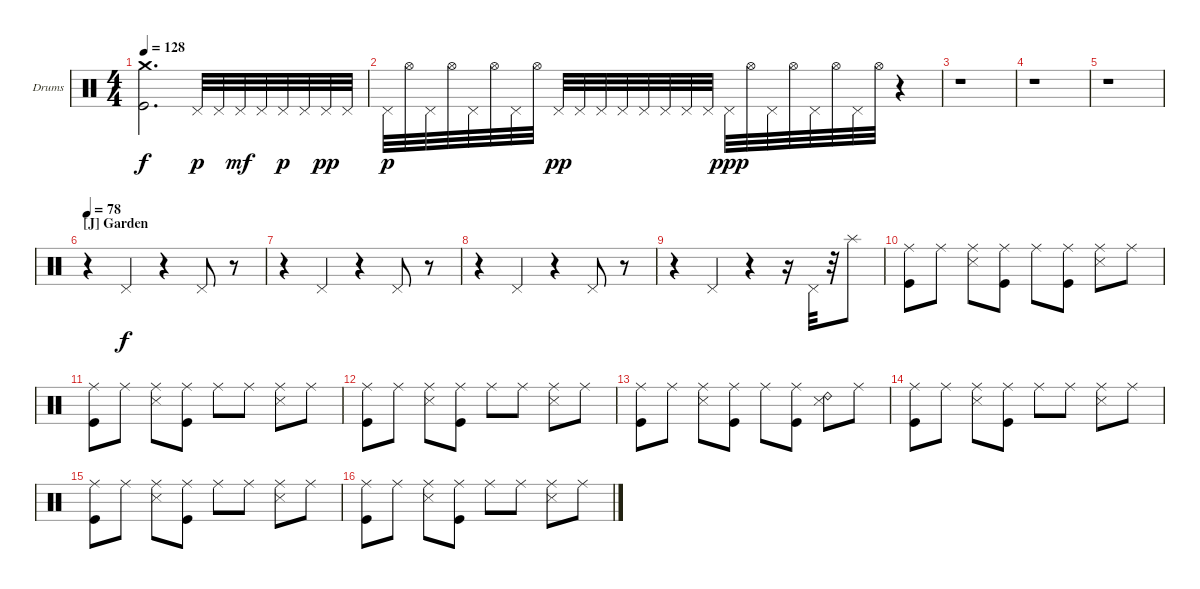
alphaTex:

\defaultSystemsLayout 4
\bracketExtendMode nobrackets
\firstSystemTrackNameOrientation horizontal
\otherSystemsTrackNameOrientation horizontal
\track ("Dave Krusen" "Drums") {instrument percussion}
\staff {score}
\articulation defaults
\ts (4 4)
\tempo 128
\clef neutral
\ks c
("Crash medium (hit)" "Kick (hit)").2{d dy f} "Pedal Hi-Hat (hit)".32{dy p} "Pedal Hi-Hat (hit)".32 "Pedal Hi-Hat (hit)".32{dy mf} "Pedal Hi-Hat (hit)".32 "Pedal Hi-Hat (hit)".32{dy p} "Pedal Hi-Hat (hit)".32 "Pedal Hi-Hat (hit)".32{dy pp} "Pedal Hi-Hat (hit)".32 |
"Pedal Hi-Hat (hit)".32{dy p} "Hi-Hat (open)".32 "Pedal Hi-Hat (hit)".32 "Hi-Hat (open)".32 "Pedal Hi-Hat (hit)".32 "Hi-Hat (open)".32 "Pedal Hi-Hat (hit)".32 "Hi-Hat (open)".32 "Pedal Hi-Hat (hit)".32{dy pp} "Pedal Hi-Hat (hit)".32 "Pedal Hi-Hat (hit)".32 "Pedal Hi-Hat (hit)".32 "Pedal Hi-Hat (hit)".32 "Pedal Hi-Hat (hit)".32 "Pedal Hi-Hat (hit)".32 "Pedal Hi-Hat (hit)".32 "Pedal Hi-Hat (hit)".32{dy ppp} "Hi-Hat (open)".32 "Pedal Hi-Hat (hit)".32 "Hi-Hat (open)".32 "Pedal Hi-Hat (hit)".32 "Hi-Hat (open)".32 "Pedal Hi-Hat (hit)".32 "Hi-Hat (open)".32 r.4 |
r.1 |
r.1 |
r.1 |
\section ("J" "Garden")
\tempo 78
r.4 "Pedal Hi-Hat (hit)".4{dy f} r.4 "Pedal Hi-Hat (hit)".8 r.8 |
r.4 "Pedal Hi-Hat (hit)".4 r.4 "Pedal Hi-Hat (hit)".8 r.8 |
r.4 "Pedal Hi-Hat (hit)".4 r.4 "Pedal Hi-Hat (hit)".8 r.8 |
r.4 "Pedal Hi-Hat (hit)".4 r.4 r.16 "Pedal Hi-Hat (hit)".32 r.32 "Splash (hit)".8 |
("Ride (middle)" "Kick (hit)").8 "Ride (middle)".8 ("Ride (middle)" "Snare (side stick) 3").8 ("Ride (middle)" "Kick (hit)").8 "Ride (middle)".8 ("Ride (middle)" "Kick (hit)").8 ("Ride (middle)" "Snare (side stick) 3").8 "Ride (middle)".8 |
("Ride (middle)" "Kick (hit)").8 "Ride (middle)".8 ("Ride (middle)" "Snare (side stick) 3").8 ("Ride (middle)" "Kick (hit)").8 "Ride (middle)".8 "Ride (middle)".8 ("Ride (middle)" "Snare (side stick) 3").8 "Ride (middle)".8 |
("Ride (middle)" "Kick (hit)").8 "Ride (middle)".8 ("Ride (middle)" "Snare (side stick) 3").8 ("Ride (middle)" "Kick (hit)").8 "Ride (middle)".8 "Ride (middle)".8 ("Ride (middle)" "Snare (side stick) 3").8 "Ride (middle)".8 |
("Ride (middle)" "Kick (hit)").8 "Ride (middle)".8 ("Ride (middle)" "Snare (side stick) 3").8 ("Ride (middle)" "Kick (hit)").8 "Ride (middle)".8 ("Ride (middle)" "Kick (hit)").8 ("Ride (bell) 2" "Snare (side stick) 3").8 "Ride (middle)".8 |
("Ride (middle)" "Kick (hit)").8 "Ride (middle)".8 ("Ride (middle)" "Snare (side stick) 3").8 ("Ride (middle)" "Kick (hit)").8 "Ride (middle)".8 "Ride (middle)".8 ("Ride (middle)" "Snare (side stick) 3").8 "Ride (middle)".8 |
("Ride (middle)" "Kick (hit)").8 "Ride (middle)".8 ("Ride (middle)" "Snare (side stick) 3").8 ("Ride (middle)" "Kick (hit)").8 "Ride (middle)".8 "Ride (middle)".8 ("Ride (middle)" "Snare (side stick) 3").8 "Ride (middle)".8 |
("Ride (middle)" "Kick (hit)").8 "Ride (middle)".8 ("Ride (middle)" "Snare (side stick) 3").8 ("Ride (middle)" "Kick (hit)").8 "Ride (middle)".8 "Ride (middle)".8 ("Ride (middle)" "Snare (side stick) 3").8 "Ride (middle)".8
